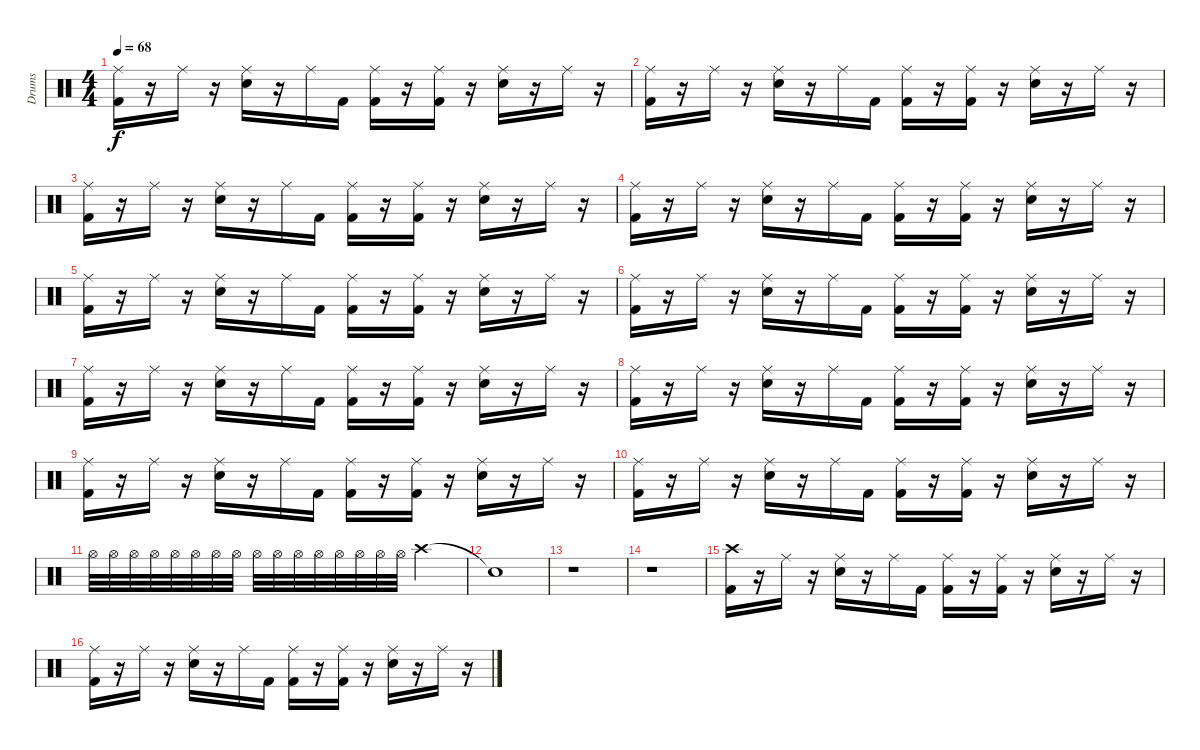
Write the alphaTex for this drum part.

\track ("Drums" "Drums") {instrument percussion}
\staff {score}
\articulation defaults
\ts (4 4)
\tempo 68
\clef neutral
\ks c
("Ride (middle)" "Kick (hit) 2").16{dy f} r.16 "Ride (middle)".16 r.16 ("Ride (middle)" "Snare (hit) 2").16 r.16 "Ride (middle)".16 "Kick (hit) 2".16 ("Ride (middle)" "Kick (hit) 2").16 r.16 ("Ride (middle)" "Kick (hit) 2").16 r.16 ("Ride (middle)" "Snare (hit) 2").16 r.16 "Ride (middle)".16 r.16 |
("Ride (middle)" "Kick (hit) 2").16 r.16 "Ride (middle)".16 r.16 ("Ride (middle)" "Snare (hit) 2").16 r.16 "Ride (middle)".16 "Kick (hit) 2".16 ("Ride (middle)" "Kick (hit) 2").16 r.16 ("Ride (middle)" "Kick (hit) 2").16 r.16 ("Ride (middle)" "Snare (hit) 2").16 r.16 "Ride (middle)".16 r.16 |
("Ride (middle)" "Kick (hit) 2").16 r.16 "Ride (middle)".16 r.16 ("Ride (middle)" "Snare (hit) 2").16 r.16 "Ride (middle)".16 "Kick (hit) 2".16 ("Ride (middle)" "Kick (hit) 2").16 r.16 ("Ride (middle)" "Kick (hit) 2").16 r.16 ("Ride (middle)" "Snare (hit) 2").16 r.16 "Ride (middle)".16 r.16 |
("Ride (middle)" "Kick (hit) 2").16 r.16 "Ride (middle)".16 r.16 ("Ride (middle)" "Snare (hit) 2").16 r.16 "Ride (middle)".16 "Kick (hit) 2".16 ("Ride (middle)" "Kick (hit) 2").16 r.16 ("Ride (middle)" "Kick (hit) 2").16 r.16 ("Ride (middle)" "Snare (hit) 2").16 r.16 "Ride (middle)".16 r.16 |
("Ride (middle)" "Kick (hit) 2").16 r.16 "Ride (middle)".16 r.16 ("Ride (middle)" "Snare (hit) 2").16 r.16 "Ride (middle)".16 "Kick (hit) 2".16 ("Ride (middle)" "Kick (hit) 2").16 r.16 ("Ride (middle)" "Kick (hit) 2").16 r.16 ("Ride (middle)" "Snare (hit) 2").16 r.16 "Ride (middle)".16 r.16 |
("Ride (middle)" "Kick (hit) 2").16 r.16 "Ride (middle)".16 r.16 ("Ride (middle)" "Snare (hit) 2").16 r.16 "Ride (middle)".16 "Kick (hit) 2".16 ("Ride (middle)" "Kick (hit) 2").16 r.16 ("Ride (middle)" "Kick (hit) 2").16 r.16 ("Ride (middle)" "Snare (hit) 2").16 r.16 "Ride (middle)".16 r.16 |
("Ride (middle)" "Kick (hit) 2").16 r.16 "Ride (middle)".16 r.16 ("Ride (middle)" "Snare (hit) 2").16 r.16 "Ride (middle)".16 "Kick (hit) 2".16 ("Ride (middle)" "Kick (hit) 2").16 r.16 ("Ride (middle)" "Kick (hit) 2").16 r.16 ("Ride (middle)" "Snare (hit) 2").16 r.16 "Ride (middle)".16 r.16 |
("Ride (middle)" "Kick (hit) 2").16 r.16 "Ride (middle)".16 r.16 ("Ride (middle)" "Snare (hit) 2").16 r.16 "Ride (middle)".16 "Kick (hit) 2".16 ("Ride (middle)" "Kick (hit) 2").16 r.16 ("Ride (middle)" "Kick (hit) 2").16 r.16 ("Ride (middle)" "Snare (hit) 2").16 r.16 "Ride (middle)".16 r.16 |
("Ride (middle)" "Kick (hit) 2").16 r.16 "Ride (middle)".16 r.16 ("Ride (middle)" "Snare (hit) 2").16 r.16 "Ride (middle)".16 "Kick (hit) 2".16 ("Ride (middle)" "Kick (hit) 2").16 r.16 ("Ride (middle)" "Kick (hit) 2").16 r.16 ("Ride (middle)" "Snare (hit) 2").16 r.16 "Ride (middle)".16 r.16 |
("Ride (middle)" "Kick (hit) 2").16 r.16 "Ride (middle)".16 r.16 ("Ride (middle)" "Snare (hit) 2").16 r.16 "Ride (middle)".16 "Kick (hit) 2".16 ("Ride (middle)" "Kick (hit) 2").16 r.16 ("Ride (middle)" "Kick (hit) 2").16 r.16 ("Ride (middle)" "Snare (hit) 2").16 r.16 "Ride (middle)".16 r.16 |
"Hi-Hat (open)".32{volume 5} "Hi-Hat (open)".32 "Hi-Hat (open)".32 "Hi-Hat (open)".32 "Hi-Hat (open)".32 "Hi-Hat (open)".32 "Hi-Hat (open)".32 "Hi-Hat (open)".32 "Hi-Hat (open)".32 "Hi-Hat (open)".32 "Hi-Hat (open)".32 "Hi-Hat (open)".32 "Hi-Hat (open)".32 "Hi-Hat (open)".32 "Hi-Hat (open)".32 "Hi-Hat (open)".32 "Crash high (hit)".2{volume 10} |
"Snare (hit)"{t}.1 |
r.1 |
r.1 |
("Crash high (hit)" "Kick (hit) 2").16 r.16 "Ride (middle)".16 r.16 ("Ride (middle)" "Snare (hit) 2").16 r.16 "Ride (middle)".16 "Kick (hit) 2".16 ("Ride (middle)" "Kick (hit) 2").16 r.16 ("Ride (middle)" "Kick (hit) 2").16 r.16 ("Ride (middle)" "Snare (hit) 2").16 r.16 "Ride (middle)".16 r.16 |
("Ride (middle)" "Kick (hit) 2").16 r.16 "Ride (middle)".16 r.16 ("Ride (middle)" "Snare (hit) 2").16 r.16 "Ride (middle)".16 "Kick (hit) 2".16 ("Ride (middle)" "Kick (hit) 2").16 r.16 ("Ride (middle)" "Kick (hit) 2").16 r.16 ("Ride (middle)" "Snare (hit) 2").16 r.16 "Ride (middle)".16 r.16
